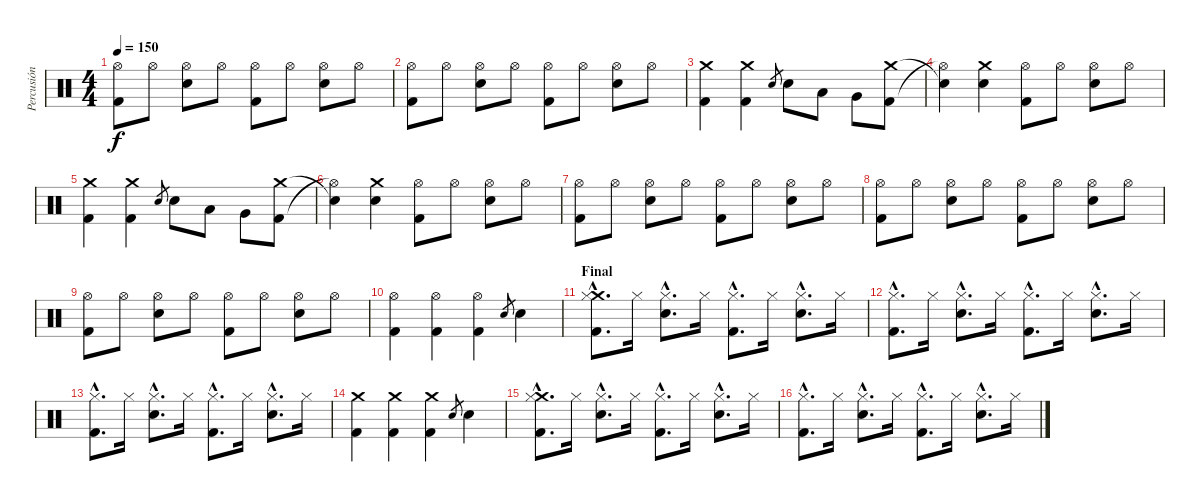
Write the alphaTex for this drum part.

\track ("Percusión" "Percusión") {instrument percussion}
\staff {score}
\articulation defaults
\ts (4 4)
\tempo 150
\clef neutral
\ks c
("Hi-Hat (open)" "Kick (hit) 2").8{dy f} "Hi-Hat (open)".8 ("Hi-Hat (open)" "Snare (hit) 2").8 "Hi-Hat (open)".8 ("Hi-Hat (open)" "Kick (hit) 2").8 "Hi-Hat (open)".8 ("Hi-Hat (open)" "Snare (hit) 2").8 "Hi-Hat (open)".8 |
("Hi-Hat (open)" "Kick (hit) 2").8 "Hi-Hat (open)".8 ("Hi-Hat (open)" "Snare (hit) 2").8 "Hi-Hat (open)".8 ("Hi-Hat (open)" "Kick (hit) 2").8 "Hi-Hat (open)".8 ("Hi-Hat (open)" "Snare (hit) 2").8 "Hi-Hat (open)".8 |
("Crash medium (hit)" "Kick (hit) 2").4 ("Crash medium (hit)" "Kick (hit) 2").4 "Snare (hit) 2".8{gr} "Snare (hit) 2".8 "Low Tom (hit)".8 "Very Low Tom (hit)".8 ("Kick (hit) 2" "Crash medium (hit)").8 |
("Hi-Hat (open)"{t} "Snare (hit)"{t}).4 ("Crash medium (hit)" "Snare (hit) 2").4 ("Hi-Hat (open)" "Kick (hit) 2").8 "Hi-Hat (open)".8 ("Hi-Hat (open)" "Snare (hit) 2").8 "Hi-Hat (open)".8 |
("Crash medium (hit)" "Kick (hit) 2").4 ("Crash medium (hit)" "Kick (hit) 2").4 "Snare (hit) 2".8{gr} "Snare (hit) 2".8 "Low Tom (hit)".8 "Very Low Tom (hit)".8 ("Kick (hit) 2" "Crash medium (hit)").8 |
("Hi-Hat (open)"{t} "Snare (hit)"{t}).4 ("Crash medium (hit)" "Snare (hit) 2").4 ("Hi-Hat (open)" "Kick (hit) 2").8 "Hi-Hat (open)".8 ("Hi-Hat (open)" "Snare (hit) 2").8 "Hi-Hat (open)".8 |
("Hi-Hat (open)" "Kick (hit) 2").8 "Hi-Hat (open)".8 ("Hi-Hat (open)" "Snare (hit) 2").8 "Hi-Hat (open)".8 ("Hi-Hat (open)" "Kick (hit) 2").8 "Hi-Hat (open)".8 ("Hi-Hat (open)" "Snare (hit) 2").8 "Hi-Hat (open)".8 |
("Hi-Hat (open)" "Kick (hit) 2").8 "Hi-Hat (open)".8 ("Hi-Hat (open)" "Snare (hit) 2").8 "Hi-Hat (open)".8 ("Hi-Hat (open)" "Kick (hit) 2").8 "Hi-Hat (open)".8 ("Hi-Hat (open)" "Snare (hit) 2").8 "Hi-Hat (open)".8 |
("Hi-Hat (open)" "Kick (hit) 2").8 "Hi-Hat (open)".8 ("Hi-Hat (open)" "Snare (hit) 2").8 "Hi-Hat (open)".8 ("Hi-Hat (open)" "Kick (hit) 2").8 "Hi-Hat (open)".8 ("Hi-Hat (open)" "Snare (hit) 2").8 "Hi-Hat (open)".8 |
("Hi-Hat (open)" "Kick (hit) 2").4 ("Hi-Hat (open)" "Kick (hit) 2").4 ("Hi-Hat (open)" "Kick (hit) 2").4 "Snare (hit) 2".8{gr} "Snare (hit) 2".4 |
\section ("" "Final")
("Crash medium (hit)"{hac} "Hi-Hat (closed)"{hac} "Kick (hit) 2"{hac}).8{d} "Hi-Hat (closed)".16 ("Hi-Hat (closed)"{hac} "Snare (hit) 2"{hac}).8{d} "Hi-Hat (closed)".16 ("Hi-Hat (closed)"{hac} "Kick (hit) 2"{hac}).8{d} "Hi-Hat (closed)".16 ("Hi-Hat (closed)"{hac} "Snare (hit) 2"{hac}).8{d} "Hi-Hat (closed)".16 |
("Hi-Hat (closed)"{hac} "Kick (hit) 2"{hac}).8{d} "Hi-Hat (closed)".16 ("Hi-Hat (closed)"{hac} "Snare (hit) 2"{hac}).8{d} "Hi-Hat (closed)".16 ("Hi-Hat (closed)"{hac} "Kick (hit) 2"{hac}).8{d} "Hi-Hat (closed)".16 ("Hi-Hat (closed)"{hac} "Snare (hit) 2"{hac}).8{d} "Hi-Hat (closed)".16 |
("Hi-Hat (closed)"{hac} "Kick (hit) 2"{hac}).8{d} "Hi-Hat (closed)".16 ("Hi-Hat (closed)"{hac} "Snare (hit) 2"{hac}).8{d} "Hi-Hat (closed)".16 ("Hi-Hat (closed)"{hac} "Kick (hit) 2"{hac}).8{d} "Hi-Hat (closed)".16 ("Hi-Hat (closed)"{hac} "Snare (hit) 2"{hac}).8{d} "Hi-Hat (closed)".16 |
("Crash medium (hit)" "Kick (hit) 2").4 ("Crash medium (hit)" "Kick (hit) 2").4 ("Crash medium (hit)" "Kick (hit) 2").4 "Snare (hit) 2".8{gr} "Snare (hit) 2".4 |
("Crash medium (hit)"{hac} "Hi-Hat (closed)"{hac} "Kick (hit) 2"{hac}).8{d} "Hi-Hat (closed)".16 ("Hi-Hat (closed)"{hac} "Snare (hit) 2"{hac}).8{d} "Hi-Hat (closed)".16 ("Hi-Hat (closed)"{hac} "Kick (hit) 2"{hac}).8{d} "Hi-Hat (closed)".16 ("Hi-Hat (closed)"{hac} "Snare (hit) 2"{hac}).8{d} "Hi-Hat (closed)".16 |
("Hi-Hat (closed)"{hac} "Kick (hit) 2"{hac}).8{d} "Hi-Hat (closed)".16 ("Hi-Hat (closed)"{hac} "Snare (hit) 2"{hac}).8{d} "Hi-Hat (closed)".16 ("Hi-Hat (closed)"{hac} "Kick (hit) 2"{hac}).8{d} "Hi-Hat (closed)".16 ("Hi-Hat (closed)"{hac} "Snare (hit) 2"{hac}).8{d} "Hi-Hat (closed)".16
